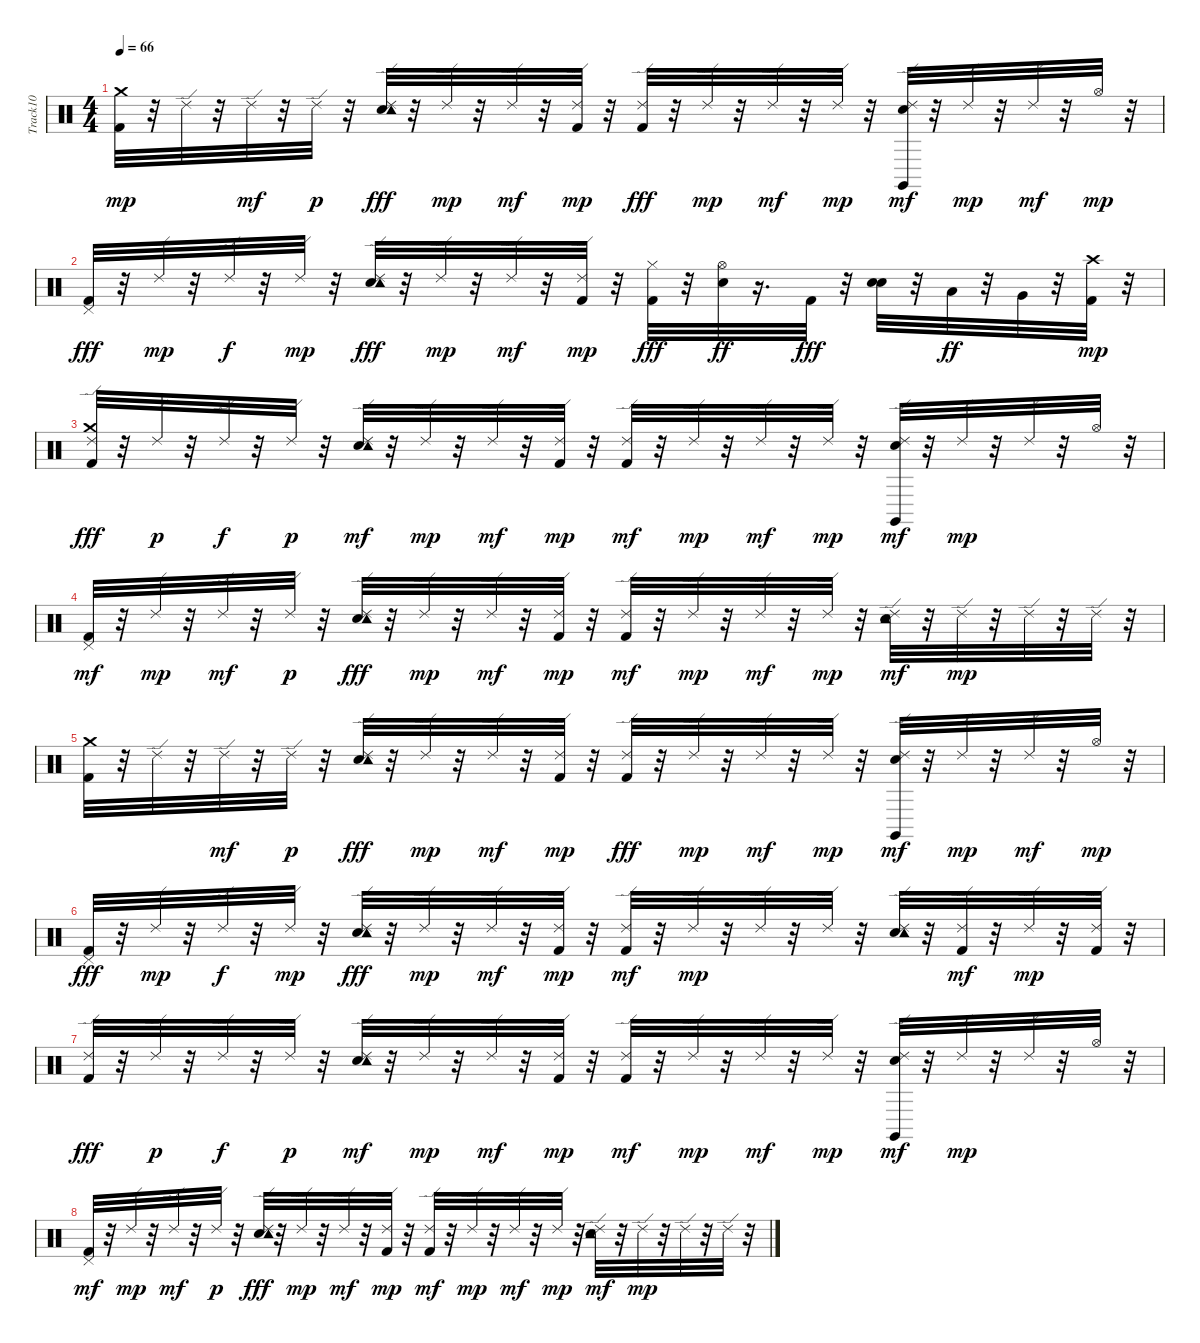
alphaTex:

\track ("Track10" "Track10") {instrument percussion}
\staff {score}
\articulation defaults
\ts (4 4)
\tempo 66
\clef neutral
\ks c
("Kick (hit) 2" "Crash medium (hit)").32{dy mp} r.32 "Ride (edge) 2".32 r.32 "Ride (edge) 2".32{dy mf} r.32 "Ride (edge) 2".32{dy p} r.32 ("Snare (hit) 2" "Ride (edge) 2" "Tambourine (hit)").32{dy fff} r.32 "Ride (edge) 2".32{dy mp} r.32 "Ride (edge) 2".32{dy mf} r.32 ("Kick (hit) 2" "Ride (edge) 2").32{dy mp} r.32 ("Kick (hit) 2" "Ride (edge) 2").32{dy fff} r.32 "Ride (edge) 2".32{dy mp} r.32 "Ride (edge) 2".32{dy mf} r.32 "Ride (edge) 2".32{dy mp} r.32 ("Snare (hit) 2" "Ride (edge) 2" "Claves (hit)").32{dy mf} r.32 "Ride (edge) 2".32{dy mp} r.32 "Ride (edge) 2".32{dy mf} r.32 "Hi-Hat (open)".32{dy mp} r.32 |
("Kick (hit) 2" "Pedal Hi-Hat (hit)").32{dy fff} r.32 "Ride (edge) 2".32{dy mp} r.32 "Ride (edge) 2".32{dy f} r.32 "Ride (edge) 2".32{dy mp} r.32 ("Snare (hit) 2" "Ride (edge) 2" "Tambourine (hit)").32{dy fff} r.32 "Ride (edge) 2".32{dy mp} r.32 "Ride (edge) 2".32{dy mf} r.32 ("Kick (hit) 2" "Ride (edge) 2").32{dy mp} r.32 ("Kick (hit) 2" "Hi-Hat (closed)").32{dy fff} r.32 ("Snare (hit) 2" "Hi-Hat (open)").32{dy ff} r.16{d} "Kick (hit) 2".32{dy fff} r.32 ("Snare (hit) 2" "Snare (hit) 2").32 r.32 "Low Tom (hit)".32{dy ff} r.32 "Very Low Tom (hit)".32 r.32 ("Kick (hit) 2" "Crash high (hit)").32{dy mp} r.32 |
("Crash medium (hit)" "Kick (hit) 2" "Ride (edge) 2").32{dy fff} r.32 "Ride (edge) 2".32{dy p} r.32 "Ride (edge) 2".32{dy f} r.32 "Ride (edge) 2".32{dy p} r.32 ("Snare (hit) 2" "Ride (edge) 2" "Tambourine (hit)").32{dy mf} r.32 "Ride (edge) 2".32{dy mp} r.32 "Ride (edge) 2".32{dy mf} r.32 ("Kick (hit) 2" "Ride (edge) 2").32{dy mp} r.32 ("Kick (hit) 2" "Ride (edge) 2").32{dy mf} r.32 "Ride (edge) 2".32{dy mp} r.32 "Ride (edge) 2".32{dy mf} r.32 "Ride (edge) 2".32{dy mp} r.32 ("Snare (hit) 2" "Ride (edge) 2" "Claves (hit)").32{dy mf} r.32 "Ride (edge) 2".32{dy mp} r.32 "Ride (edge) 2".32 r.32 "Hi-Hat (open)".32 r.32 |
("Kick (hit) 2" "Pedal Hi-Hat (hit)").32{dy mf} r.32 "Ride (edge) 2".32{dy mp} r.32 "Ride (edge) 2".32{dy mf} r.32 "Ride (edge) 2".32{dy p} r.32 ("Snare (hit) 2" "Ride (edge) 2" "Tambourine (hit)").32{dy fff} r.32 "Ride (edge) 2".32{dy mp} r.32 "Ride (edge) 2".32{dy mf} r.32 ("Kick (hit) 2" "Ride (edge) 2").32{dy mp} r.32 ("Kick (hit) 2" "Ride (edge) 2").32{dy mf} r.32 "Ride (edge) 2".32{dy mp} r.32 "Ride (edge) 2".32{dy mf} r.32 "Ride (edge) 2".32{dy mp} r.32 ("Snare (hit) 2" "Ride (edge) 2" "Tambourine (hit)").32{dy mf} r.32 "Ride (edge) 2".32{dy mp} r.32 "Ride (edge) 2".32 r.32 "Ride (edge) 2".32 r.32 |
("Kick (hit) 2" "Crash medium (hit)").32 r.32 "Ride (edge) 2".32 r.32 "Ride (edge) 2".32{dy mf} r.32 "Ride (edge) 2".32{dy p} r.32 ("Snare (hit) 2" "Ride (edge) 2" "Tambourine (hit)").32{dy fff} r.32 "Ride (edge) 2".32{dy mp} r.32 "Ride (edge) 2".32{dy mf} r.32 ("Kick (hit) 2" "Ride (edge) 2").32{dy mp} r.32 ("Kick (hit) 2" "Ride (edge) 2").32{dy fff} r.32 "Ride (edge) 2".32{dy mp} r.32 "Ride (edge) 2".32{dy mf} r.32 "Ride (edge) 2".32{dy mp} r.32 ("Snare (hit) 2" "Ride (edge) 2" "Claves (hit)").32{dy mf} r.32 "Ride (edge) 2".32{dy mp} r.32 "Ride (edge) 2".32{dy mf} r.32 "Hi-Hat (open)".32{dy mp} r.32 |
("Kick (hit) 2" "Pedal Hi-Hat (hit)").32{dy fff} r.32 "Ride (edge) 2".32{dy mp} r.32 "Ride (edge) 2".32{dy f} r.32 "Ride (edge) 2".32{dy mp} r.32 ("Snare (hit) 2" "Ride (edge) 2" "Tambourine (hit)").32{dy fff} r.32 "Ride (edge) 2".32{dy mp} r.32 "Ride (edge) 2".32{dy mf} r.32 ("Kick (hit) 2" "Ride (edge) 2").32{dy mp} r.32 ("Kick (hit) 2" "Ride (edge) 2").32{dy mf} r.32 "Ride (edge) 2".32{dy mp} r.32 "Ride (edge) 2".32 r.32 "Ride (edge) 2".32 r.32 ("Snare (hit) 2" "Ride (edge) 2" "Tambourine (hit)").32 r.32 ("Ride (edge) 2" "Kick (hit) 2").32{dy mf} r.32 "Ride (edge) 2".32{dy mp} r.32 ("Ride (edge) 2" "Kick (hit) 2").32 r.32 |
("Kick (hit) 2" "Ride (edge) 2").32{dy fff} r.32 "Ride (edge) 2".32{dy p} r.32 "Ride (edge) 2".32{dy f} r.32 "Ride (edge) 2".32{dy p} r.32 ("Snare (hit) 2" "Ride (edge) 2" "Tambourine (hit)").32{dy mf} r.32 "Ride (edge) 2".32{dy mp} r.32 "Ride (edge) 2".32{dy mf} r.32 ("Kick (hit) 2" "Ride (edge) 2").32{dy mp} r.32 ("Kick (hit) 2" "Ride (edge) 2").32{dy mf} r.32 "Ride (edge) 2".32{dy mp} r.32 "Ride (edge) 2".32{dy mf} r.32 "Ride (edge) 2".32{dy mp} r.32 ("Snare (hit) 2" "Ride (edge) 2" "Claves (hit)").32{dy mf} r.32 "Ride (edge) 2".32{dy mp} r.32 "Ride (edge) 2".32 r.32 "Hi-Hat (open)".32 r.32 |
("Kick (hit) 2" "Pedal Hi-Hat (hit)").32{dy mf} r.32 "Ride (edge) 2".32{dy mp} r.32 "Ride (edge) 2".32{dy mf} r.32 "Ride (edge) 2".32{dy p} r.32 ("Snare (hit) 2" "Ride (edge) 2" "Tambourine (hit)").32{dy fff} r.32 "Ride (edge) 2".32{dy mp} r.32 "Ride (edge) 2".32{dy mf} r.32 ("Kick (hit) 2" "Ride (edge) 2").32{dy mp} r.32 ("Kick (hit) 2" "Ride (edge) 2").32{dy mf} r.32 "Ride (edge) 2".32{dy mp} r.32 "Ride (edge) 2".32{dy mf} r.32 "Ride (edge) 2".32{dy mp} r.32 ("Snare (hit) 2" "Ride (edge) 2" "Tambourine (hit)").32{dy mf} r.32 "Ride (edge) 2".32{dy mp} r.32 "Ride (edge) 2".32 r.32 "Ride (edge) 2".32 r.32
